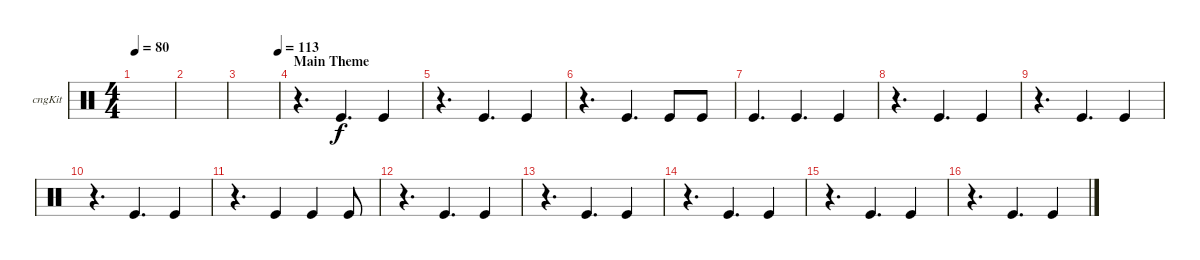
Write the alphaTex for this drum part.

\defaultSystemsLayout 4
\bracketExtendMode groupsimilarinstruments
\firstSystemTrackNameOrientation horizontal
\otherSystemsTrackNameOrientation horizontal
\track ("Congas" "cngKit") {instrument percussion}
\staff {score}
\articulation defaults
\ts (4 4)
\tempo 80
\clef neutral
\scale
0.333333
\ks c
|
\scale
0.333333 |
\tempo (113 1)
\scale
0.333333 |
\section ("" "Main Theme")
\scale
0.333333 r.4{d} "Kick (hit)".4{d} "Kick (hit)".4 |
\scale
0.333333 r.4{d} "Kick (hit)".4{d} "Kick (hit)".4 |
\scale
0.333333 r.4{d} "Kick (hit)".4{d} "Kick (hit)".8 "Kick (hit)".8 |
\scale
0.333333 "Kick (hit)".4{d} "Kick (hit)".4{d} "Kick (hit)".4 |
\scale
0.333333 r.4{d} "Kick (hit)".4{d} "Kick (hit)".4 |
\scale
0.333333 r.4{d} "Kick (hit)".4{d} "Kick (hit)".4 |
\scale
0.333333 r.4{d} "Kick (hit)".4{d} "Kick (hit)".4 |
\scale
0.333333 r.4{d} "Kick (hit)".4 "Kick (hit)".4 "Kick (hit)".8 |
\scale
0.333333 r.4{d} "Kick (hit)".4{d} "Kick (hit)".4 |
\scale
0.333333 r.4{d} "Kick (hit)".4{d} "Kick (hit)".4 |
\scale
0.333333 r.4{d} "Kick (hit)".4{d} "Kick (hit)".4 |
\scale
0.333333 r.4{d} "Kick (hit)".4{d} "Kick (hit)".4 |
\scale
0.333333 r.4{d} "Kick (hit)".4{d} "Kick (hit)".4
